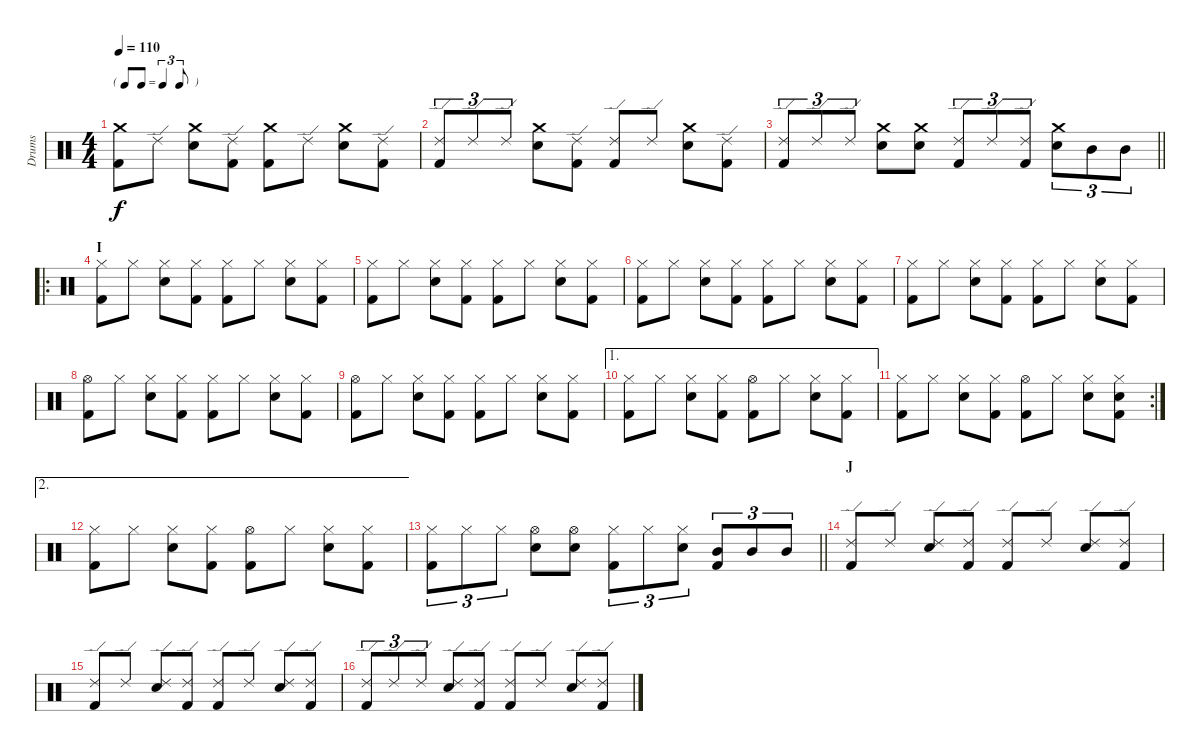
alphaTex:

\track ("Drums" "Drums") {instrument percussion}
\staff {score}
\articulation defaults
\ts (4 4)
\tf triplet8th
\tempo 110
\clef neutral
\ks c
("Crash medium (hit)" "Kick (hit) 2").8{dy f} "Ride (edge) 2".8 ("Crash medium (hit)" "Snare (hit) 2").8 ("Ride (edge) 2" "Kick (hit) 2").8 ("Crash medium (hit)" "Kick (hit) 2").8 "Ride (edge) 2".8 ("Crash medium (hit)" "Snare (hit) 2").8 ("Ride (edge) 2" "Kick (hit) 2").8 |
("Ride (edge) 2" "Kick (hit) 2").8{tu (3 2)} "Ride (edge) 2".8{tu (3 2)} "Ride (edge) 2".8{tu (3 2)} ("Crash medium (hit)" "Snare (hit) 2").8 ("Ride (edge) 2" "Kick (hit) 2").8 ("Ride (edge) 2" "Kick (hit) 2").8 "Ride (edge) 2".8 ("Crash medium (hit)" "Snare (hit) 2").8 ("Ride (edge) 2" "Kick (hit) 2").8 |
\barLineRight lightlight
("Ride (edge) 2" "Kick (hit) 2").8{tu (3 2)} "Ride (edge) 2".8{tu (3 2)} "Ride (edge) 2".8{tu (3 2)} ("Crash medium (hit)" "Snare (hit) 2").8 ("Crash medium (hit)" "Snare (hit) 2").8 ("Ride (edge) 2" "Kick (hit) 2").8{tu (3 2)} "Ride (edge) 2".8{tu (3 2)} ("Ride (edge) 2" "Kick (hit) 2").8{tu (3 2)} ("Crash medium (hit)" "Snare (hit) 2").8{tu (3 2)} "Mid Tom (hit)".8{tu (3 2)} "Mid Tom (hit)".8{tu (3 2)} |
\ro
\section ("" "I")
("Hi-Hat (closed)" "Kick (hit) 2").8 "Hi-Hat (closed)".8 ("Hi-Hat (closed)" "Snare (hit) 2").8 ("Hi-Hat (closed)" "Kick (hit) 2").8 ("Hi-Hat (closed)" "Kick (hit) 2").8 "Hi-Hat (closed)".8 ("Hi-Hat (closed)" "Snare (hit) 2").8 ("Hi-Hat (closed)" "Kick (hit) 2").8 |
("Hi-Hat (closed)" "Kick (hit) 2").8 "Hi-Hat (closed)".8 ("Hi-Hat (closed)" "Snare (hit) 2").8 ("Hi-Hat (closed)" "Kick (hit) 2").8 ("Hi-Hat (closed)" "Kick (hit) 2").8 "Hi-Hat (closed)".8 ("Hi-Hat (closed)" "Snare (hit) 2").8 ("Hi-Hat (closed)" "Kick (hit) 2").8 |
("Hi-Hat (closed)" "Kick (hit) 2").8 "Hi-Hat (closed)".8 ("Hi-Hat (closed)" "Snare (hit) 2").8 ("Hi-Hat (closed)" "Kick (hit) 2").8 ("Hi-Hat (closed)" "Kick (hit) 2").8 "Hi-Hat (closed)".8 ("Hi-Hat (closed)" "Snare (hit) 2").8 ("Hi-Hat (closed)" "Kick (hit) 2").8 |
("Hi-Hat (closed)" "Kick (hit) 2").8 "Hi-Hat (closed)".8 ("Hi-Hat (closed)" "Snare (hit) 2").8 ("Hi-Hat (closed)" "Kick (hit) 2").8 ("Hi-Hat (closed)" "Kick (hit) 2").8 "Hi-Hat (closed)".8 ("Hi-Hat (closed)" "Snare (hit) 2").8 ("Hi-Hat (closed)" "Kick (hit) 2").8 |
("Hi-Hat (open)" "Kick (hit) 2").8 "Hi-Hat (closed)".8 ("Hi-Hat (closed)" "Snare (hit) 2").8 ("Hi-Hat (closed)" "Kick (hit) 2").8 ("Hi-Hat (closed)" "Kick (hit) 2").8 "Hi-Hat (closed)".8 ("Hi-Hat (closed)" "Snare (hit) 2").8 ("Hi-Hat (closed)" "Kick (hit) 2").8 |
("Hi-Hat (open)" "Kick (hit) 2").8 "Hi-Hat (closed)".8 ("Hi-Hat (closed)" "Snare (hit) 2").8 ("Hi-Hat (closed)" "Kick (hit) 2").8 ("Hi-Hat (closed)" "Kick (hit) 2").8 "Hi-Hat (closed)".8 ("Hi-Hat (closed)" "Snare (hit) 2").8 ("Hi-Hat (closed)" "Kick (hit) 2").8 |
\ae 1
("Hi-Hat (closed)" "Kick (hit) 2").8 "Hi-Hat (closed)".8 ("Hi-Hat (closed)" "Snare (hit) 2").8 ("Hi-Hat (closed)" "Kick (hit) 2").8 ("Hi-Hat (open)" "Kick (hit) 2").8 "Hi-Hat (closed)".8 ("Hi-Hat (closed)" "Snare (hit) 2").8 ("Hi-Hat (closed)" "Kick (hit) 2").8 |
\rc 2
("Hi-Hat (closed)" "Kick (hit) 2").8 "Hi-Hat (closed)".8 ("Hi-Hat (closed)" "Snare (hit) 2").8 ("Hi-Hat (closed)" "Kick (hit) 2").8 ("Hi-Hat (open)" "Kick (hit) 2").8 "Hi-Hat (closed)".8 ("Hi-Hat (closed)" "Snare (hit) 2").8 ("Hi-Hat (closed)" "Snare (hit) 2" "Kick (hit) 2").8 |
\ae 2
("Hi-Hat (closed)" "Kick (hit) 2").8 "Hi-Hat (closed)".8 ("Hi-Hat (closed)" "Snare (hit) 2").8 ("Hi-Hat (closed)" "Kick (hit) 2").8 ("Hi-Hat (open)" "Kick (hit) 2").8 "Hi-Hat (closed)".8 ("Hi-Hat (closed)" "Snare (hit) 2").8 ("Hi-Hat (closed)" "Kick (hit) 2").8 |
\barLineRight lightlight
("Hi-Hat (closed)" "Kick (hit) 2").8{tu (3 2)} "Hi-Hat (closed)".8{tu (3 2)} "Hi-Hat (closed)".8{tu (3 2)} ("Hi-Hat (open)" "Snare (hit) 2").8 ("Hi-Hat (open)" "Snare (hit) 2").8 ("Hi-Hat (closed)" "Kick (hit) 2").8{tu (3 2)} "Hi-Hat (closed)".8{tu (3 2)} ("Hi-Hat (closed)" "Snare (hit) 2").8{tu (3 2)} ("Mid Tom (hit)" "Kick (hit) 2").8{tu (3 2)} "Mid Tom (hit)".8{tu (3 2)} "Mid Tom (hit)".8{tu (3 2)} |
\section ("" "J")
("Ride (edge) 2" "Kick (hit) 2").8 "Ride (edge) 2".8 ("Ride (edge) 2" "Snare (hit) 2").8 ("Ride (edge) 2" "Kick (hit) 2").8 ("Ride (edge) 2" "Kick (hit) 2").8 "Ride (edge) 2".8 ("Ride (edge) 2" "Snare (hit) 2").8 ("Ride (edge) 2" "Kick (hit) 2").8 |
("Ride (edge) 2" "Kick (hit) 2").8 "Ride (edge) 2".8 ("Ride (edge) 2" "Snare (hit) 2").8 ("Ride (edge) 2" "Kick (hit) 2").8 ("Ride (edge) 2" "Kick (hit) 2").8 "Ride (edge) 2".8 ("Ride (edge) 2" "Snare (hit) 2").8 ("Ride (edge) 2" "Kick (hit) 2").8 |
("Ride (edge) 2" "Kick (hit) 2").8{tu (3 2)} "Ride (edge) 2".8{tu (3 2)} "Ride (edge) 2".8{tu (3 2)} ("Ride (edge) 2" "Snare (hit) 2").8 ("Ride (edge) 2" "Kick (hit) 2").8 ("Ride (edge) 2" "Kick (hit) 2").8 "Ride (edge) 2".8 ("Ride (edge) 2" "Snare (hit) 2").8 ("Ride (edge) 2" "Kick (hit) 2").8
